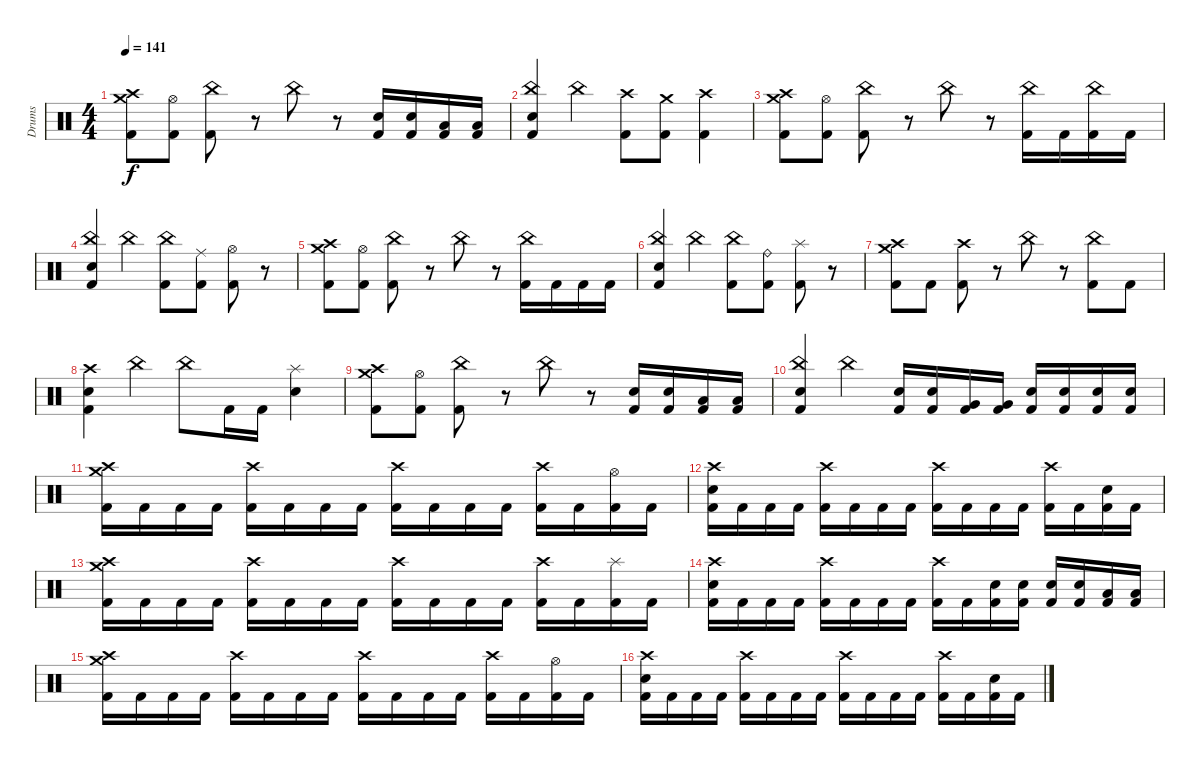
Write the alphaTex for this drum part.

\track ("Drums" "Drums") {solo instrument percussion}
\staff {score}
\articulation defaults
\ts (4 4)
\tempo 141
\clef neutral
\ks c
("Crash high (hit)" "Crash medium (hit)" "Kick (hit) 2").8{dy f} ("Hi-Hat (open)" "Kick (hit) 2").8 ("China (hit)" "Kick (hit) 2").8 r.8 "China (hit)".8 r.8 ("Electric Snare (hit)" "Kick (hit) 2").16 ("Electric Snare (hit)" "Kick (hit) 2").16 ("Low Tom (hit)" "Kick (hit) 2").16 ("Low Tom (hit)" "Kick (hit) 2").16 |
("China (hit)" "Electric Snare (hit)" "Kick (hit) 2").4 "China (hit)".4 ("Crash high (hit)" "Kick (hit) 2").8 ("Crash medium (hit)" "Kick (hit) 2").8 ("Crash high (hit)" "Kick (hit) 2").4 |
("Crash high (hit)" "Crash medium (hit)" "Kick (hit) 2").8 ("Hi-Hat (open)" "Kick (hit) 2").8 ("China (hit)" "Kick (hit) 2").8 r.8 "China (hit)".8 r.8 ("China (hit)" "Kick (hit) 2").16 "Kick (hit) 2".16 ("China (hit)" "Kick (hit) 2").16 "Kick (hit) 2".16 |
("China (hit)" "Electric Snare (hit)" "Kick (hit) 2").4 "China (hit)".4 ("China (hit)" "Kick (hit) 2").8 ("Ride (middle)" "Kick (hit) 2").8 ("Hi-Hat (open)" "Kick (hit) 2").8 r.8 |
("Crash high (hit)" "Crash medium (hit)" "Kick (hit) 2").8 ("Hi-Hat (open)" "Kick (hit) 2").8 ("China (hit)" "Kick (hit) 2").8 r.8 "China (hit)".8 r.8 ("China (hit)" "Kick (hit) 2").16 "Kick (hit) 2".16 "Kick (hit) 2".16 "Kick (hit) 2".16 |
("China (hit)" "Electric Snare (hit)" "Kick (hit) 2").4 "China (hit)".4 ("China (hit)" "Kick (hit) 2").8 ("Ride (bell)" "Kick (hit) 2").8 ("Splash (hit)" "Kick (hit) 2").8 r.8 |
("Crash high (hit)" "Crash medium (hit)" "Kick (hit) 2").8 "Kick (hit) 2".8 ("Crash high (hit)" "Kick (hit) 2").8 r.8 "China (hit)".8 r.8 ("China (hit)" "Kick (hit) 2").8 "Kick (hit) 2".8 |
("Crash high (hit)" "Electric Snare (hit)" "Kick (hit) 2").4 "China (hit)".4 "China (hit)".8 "Kick (hit) 2".16 "Kick (hit) 2".16 ("Splash (hit)" "Electric Snare (hit)").4 |
("Crash high (hit)" "Crash medium (hit)" "Kick (hit) 2").8 ("Hi-Hat (open)" "Kick (hit) 2").8 ("China (hit)" "Kick (hit) 2").8 r.8 "China (hit)".8 r.8 ("Electric Snare (hit)" "Kick (hit) 2").16 ("Electric Snare (hit)" "Kick (hit) 2").16 ("Low Tom (hit)" "Kick (hit) 2").16 ("Low Tom (hit)" "Kick (hit) 2").16 |
("China (hit)" "Electric Snare (hit)" "Kick (hit) 2").4 "China (hit)".4 ("Electric Snare (hit)" "Kick (hit) 2").16 ("Electric Snare (hit)" "Kick (hit) 2").16 ("Very Low Tom (hit)" "Kick (hit) 2").16 ("Very Low Tom (hit)" "Kick (hit) 2").16 ("Electric Snare (hit)" "Kick (hit) 2").16 ("Electric Snare (hit)" "Kick (hit) 2").16 ("Electric Snare (hit)" "Kick (hit) 2").16 ("Electric Snare (hit)" "Kick (hit) 2").16 |
("Crash high (hit)" "Crash medium (hit)" "Kick (hit) 2").16 "Kick (hit) 2".16 "Kick (hit) 2".16 "Kick (hit) 2".16 ("Crash high (hit)" "Kick (hit) 2").16 "Kick (hit) 2".16 "Kick (hit) 2".16 "Kick (hit) 2".16 ("Crash high (hit)" "Kick (hit) 2").16 "Kick (hit) 2".16 "Kick (hit) 2".16 "Kick (hit) 2".16 ("Crash high (hit)" "Kick (hit) 2").16 "Kick (hit) 2".16 ("Hi-Hat (open)" "Kick (hit) 2").16 "Kick (hit) 2".16 |
("Crash high (hit)" "Electric Snare (hit)" "Kick (hit) 2").16 "Kick (hit) 2".16 "Kick (hit) 2".16 "Kick (hit) 2".16 ("Crash high (hit)" "Kick (hit) 2").16 "Kick (hit) 2".16 "Kick (hit) 2".16 "Kick (hit) 2".16 ("Crash high (hit)" "Kick (hit) 2").16 "Kick (hit) 2".16 "Kick (hit) 2".16 "Kick (hit) 2".16 ("Crash high (hit)" "Kick (hit) 2").16 "Kick (hit) 2".16 ("Electric Snare (hit)" "Kick (hit) 2").16 "Kick (hit) 2".16 |
("Crash high (hit)" "Crash medium (hit)" "Kick (hit) 2").16 "Kick (hit) 2".16 "Kick (hit) 2".16 "Kick (hit) 2".16 ("Crash high (hit)" "Kick (hit) 2").16 "Kick (hit) 2".16 "Kick (hit) 2".16 "Kick (hit) 2".16 ("Crash high (hit)" "Kick (hit) 2").16 "Kick (hit) 2".16 "Kick (hit) 2".16 "Kick (hit) 2".16 ("Crash high (hit)" "Kick (hit) 2").16 "Kick (hit) 2".16 ("Splash (hit)" "Kick (hit) 2").16 "Kick (hit) 2".16 |
("Crash high (hit)" "Electric Snare (hit)" "Kick (hit) 2").16 "Kick (hit) 2".16 "Kick (hit) 2".16 "Kick (hit) 2".16 ("Crash high (hit)" "Kick (hit) 2").16 "Kick (hit) 2".16 "Kick (hit) 2".16 "Kick (hit) 2".16 ("Crash high (hit)" "Kick (hit) 2").16 "Kick (hit) 2".16 ("Electric Snare (hit)" "Kick (hit) 2").16 ("Electric Snare (hit)" "Kick (hit) 2").16 ("Electric Snare (hit)" "Kick (hit) 2").16 ("Electric Snare (hit)" "Kick (hit) 2").16 ("Low Tom (hit)" "Kick (hit) 2").16 ("Low Tom (hit)" "Kick (hit) 2").16 |
("Crash high (hit)" "Crash medium (hit)" "Kick (hit) 2").16 "Kick (hit) 2".16 "Kick (hit) 2".16 "Kick (hit) 2".16 ("Crash high (hit)" "Kick (hit) 2").16 "Kick (hit) 2".16 "Kick (hit) 2".16 "Kick (hit) 2".16 ("Crash high (hit)" "Kick (hit) 2").16 "Kick (hit) 2".16 "Kick (hit) 2".16 "Kick (hit) 2".16 ("Crash high (hit)" "Kick (hit) 2").16 "Kick (hit) 2".16 ("Hi-Hat (open)" "Kick (hit) 2").16 "Kick (hit) 2".16 |
("Crash high (hit)" "Electric Snare (hit)" "Kick (hit) 2").16 "Kick (hit) 2".16 "Kick (hit) 2".16 "Kick (hit) 2".16 ("Crash high (hit)" "Kick (hit) 2").16 "Kick (hit) 2".16 "Kick (hit) 2".16 "Kick (hit) 2".16 ("Crash high (hit)" "Kick (hit) 2").16 "Kick (hit) 2".16 "Kick (hit) 2".16 "Kick (hit) 2".16 ("Crash high (hit)" "Kick (hit) 2").16 "Kick (hit) 2".16 ("Electric Snare (hit)" "Kick (hit) 2").16 "Kick (hit) 2".16
